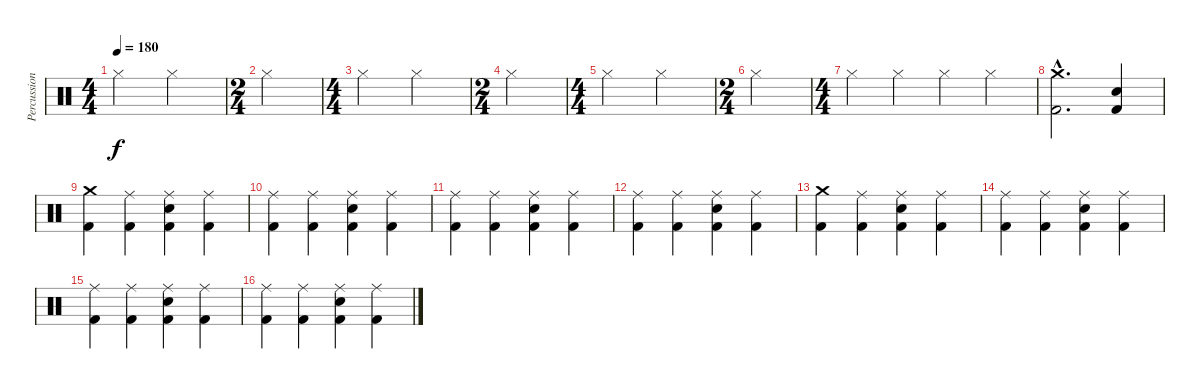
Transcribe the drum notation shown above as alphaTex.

\track ("Percussion" "Percussion") {instrument percussion}
\staff {score}
\articulation defaults
\ts (4 4)
\tempo 180
\clef neutral
\ks c "Hi-Hat (closed)".2{dy f} "Hi-Hat (closed)".2
|
\ts (2 4)
"Hi-Hat (closed)".2 |
\ts (4 4)
"Hi-Hat (closed)".2 "Hi-Hat (closed)".2 |
\ts (2 4)
"Hi-Hat (closed)".2 |
\ts (4 4)
"Hi-Hat (closed)".2 "Hi-Hat (closed)".2 |
\ts (2 4)
"Hi-Hat (closed)".2 |
\ts (4 4)
"Hi-Hat (closed)".4 "Hi-Hat (closed)".4 "Hi-Hat (closed)".4 "Hi-Hat (closed)".4 |
("Crash medium (hit)"{hac} "Kick (hit) 2"{hac}).2{d} ("Electric Snare (hit)" "Kick (hit) 2").4 |
("Crash medium (hit)" "Kick (hit) 2").4 ("Ride (middle)" "Kick (hit) 2").4 ("Ride (middle)" "Electric Snare (hit)" "Kick (hit) 2").4 ("Ride (middle)" "Kick (hit) 2").4 |
("Ride (middle)" "Kick (hit) 2").4 ("Ride (middle)" "Kick (hit) 2").4 ("Ride (middle)" "Electric Snare (hit)" "Kick (hit) 2").4 ("Ride (middle)" "Kick (hit) 2").4 |
("Ride (middle)" "Kick (hit) 2").4 ("Ride (middle)" "Kick (hit) 2").4 ("Ride (middle)" "Electric Snare (hit)" "Kick (hit) 2").4 ("Ride (middle)" "Kick (hit) 2").4 |
("Ride (middle)" "Kick (hit) 2").4 ("Ride (middle)" "Kick (hit) 2").4 ("Ride (middle)" "Electric Snare (hit)" "Kick (hit) 2").4 ("Ride (middle)" "Kick (hit) 2").4 |
("Crash medium (hit)" "Kick (hit) 2").4 ("Ride (middle)" "Kick (hit) 2").4 ("Ride (middle)" "Electric Snare (hit)" "Kick (hit) 2").4 ("Ride (middle)" "Kick (hit) 2").4 |
("Ride (middle)" "Kick (hit) 2").4 ("Ride (middle)" "Kick (hit) 2").4 ("Ride (middle)" "Electric Snare (hit)" "Kick (hit) 2").4 ("Ride (middle)" "Kick (hit) 2").4 |
("Ride (middle)" "Kick (hit) 2").4 ("Ride (middle)" "Kick (hit) 2").4 ("Ride (middle)" "Electric Snare (hit)" "Kick (hit) 2").4 ("Ride (middle)" "Kick (hit) 2").4 |
("Ride (middle)" "Kick (hit) 2").4 ("Ride (middle)" "Kick (hit) 2").4 ("Ride (middle)" "Electric Snare (hit)" "Kick (hit) 2").4 ("Ride (middle)" "Kick (hit) 2").4
